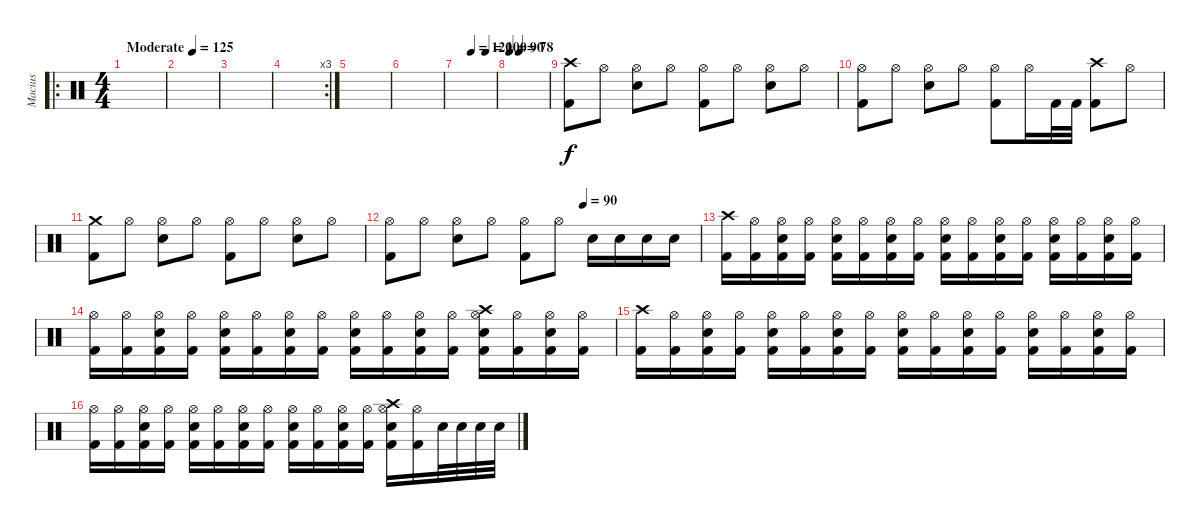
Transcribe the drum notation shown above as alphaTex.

\track ("Macius" "Macius") {instrument percussion}
\staff {score}
\articulation defaults
\ro
\ts (4 4)
\tempo (125 "Moderate")
\clef neutral
\ks c
|
|
|
\rc 3
|
|
|
\tempo (120 0.375)
\tempo (100 0.75)
|
\tempo 90
\tempo (78 0.25)
|
("Crash high (hit)" "Kick (hit) 2").8 "Hi-Hat (open)".8 ("Hi-Hat (open)" "Electric Snare (hit)").8 "Hi-Hat (open)".8 ("Hi-Hat (open)" "Kick (hit) 2").8 "Hi-Hat (open)".8 ("Hi-Hat (open)" "Electric Snare (hit)").8 "Hi-Hat (open)".8 |
("Hi-Hat (open)" "Kick (hit) 2").8 "Hi-Hat (open)".8 ("Hi-Hat (open)" "Electric Snare (hit)").8 "Hi-Hat (open)".8 ("Hi-Hat (open)" "Kick (hit) 2").8 "Hi-Hat (open)".16 "Kick (hit) 2".32 "Kick (hit) 2".32 ("Crash high (hit)" "Kick (hit) 2").8 "Hi-Hat (open)".8 |
("Crash medium (hit)" "Kick (hit) 2").8 "Hi-Hat (open)".8 ("Hi-Hat (open)" "Electric Snare (hit)").8 "Hi-Hat (open)".8 ("Hi-Hat (open)" "Kick (hit) 2").8 "Hi-Hat (open)".8 ("Hi-Hat (open)" "Electric Snare (hit)").8 "Hi-Hat (open)".8 |
\tempo (90 0.625)
("Hi-Hat (open)" "Kick (hit) 2").8 "Hi-Hat (open)".8 ("Hi-Hat (open)" "Electric Snare (hit)").8 "Hi-Hat (open)".8 ("Hi-Hat (open)" "Kick (hit) 2").8 "Hi-Hat (open)".8 "Electric Snare (hit)".16 "Electric Snare (hit)".16 "Electric Snare (hit)".16 "Electric Snare (hit)".16 |
("Crash high (hit)" "Kick (hit) 2").16 ("Hi-Hat (open)" "Kick (hit) 2").16 ("Hi-Hat (open)" "Electric Snare (hit)" "Kick (hit) 2").16 ("Hi-Hat (open)" "Kick (hit) 2").16 ("Hi-Hat (open)" "Electric Snare (hit)" "Kick (hit) 2").16 ("Hi-Hat (open)" "Kick (hit) 2").16 ("Hi-Hat (open)" "Electric Snare (hit)" "Kick (hit) 2").16 ("Hi-Hat (open)" "Kick (hit) 2").16 ("Hi-Hat (open)" "Electric Snare (hit)" "Kick (hit) 2").16 ("Hi-Hat (open)" "Kick (hit) 2").16 ("Hi-Hat (open)" "Electric Snare (hit)" "Kick (hit) 2").16 ("Hi-Hat (open)" "Kick (hit) 2").16 ("Hi-Hat (open)" "Electric Snare (hit)" "Kick (hit) 2").16 ("Hi-Hat (open)" "Kick (hit) 2").16 ("Hi-Hat (open)" "Electric Snare (hit)" "Kick (hit) 2").16 ("Hi-Hat (open)" "Kick (hit) 2").16 |
("Hi-Hat (open)" "Kick (hit) 2").16 ("Hi-Hat (open)" "Kick (hit) 2").16 ("Hi-Hat (open)" "Electric Snare (hit)" "Kick (hit) 2").16 ("Hi-Hat (open)" "Kick (hit) 2").16 ("Hi-Hat (open)" "Electric Snare (hit)" "Kick (hit) 2").16 ("Hi-Hat (open)" "Kick (hit) 2").16 ("Hi-Hat (open)" "Electric Snare (hit)" "Kick (hit) 2").16 ("Hi-Hat (open)" "Kick (hit) 2").16 ("Hi-Hat (open)" "Electric Snare (hit)" "Kick (hit) 2").16 ("Hi-Hat (open)" "Kick (hit) 2").16 ("Hi-Hat (open)" "Electric Snare (hit)" "Kick (hit) 2").16 ("Hi-Hat (open)" "Kick (hit) 2").16 ("Crash high (hit)" "Hi-Hat (open)" "Electric Snare (hit)" "Kick (hit) 2").16 ("Hi-Hat (open)" "Kick (hit) 2").16 ("Hi-Hat (open)" "Electric Snare (hit)" "Kick (hit) 2").16 ("Hi-Hat (open)" "Kick (hit) 2").16 |
("Crash high (hit)" "Kick (hit) 2").16 ("Hi-Hat (open)" "Kick (hit) 2").16 ("Hi-Hat (open)" "Electric Snare (hit)" "Kick (hit) 2").16 ("Hi-Hat (open)" "Kick (hit) 2").16 ("Hi-Hat (open)" "Electric Snare (hit)" "Kick (hit) 2").16 ("Hi-Hat (open)" "Kick (hit) 2").16 ("Hi-Hat (open)" "Electric Snare (hit)" "Kick (hit) 2").16 ("Hi-Hat (open)" "Kick (hit) 2").16 ("Hi-Hat (open)" "Electric Snare (hit)" "Kick (hit) 2").16 ("Hi-Hat (open)" "Kick (hit) 2").16 ("Hi-Hat (open)" "Electric Snare (hit)" "Kick (hit) 2").16 ("Hi-Hat (open)" "Kick (hit) 2").16 ("Hi-Hat (open)" "Electric Snare (hit)" "Kick (hit) 2").16 ("Hi-Hat (open)" "Kick (hit) 2").16 ("Hi-Hat (open)" "Electric Snare (hit)" "Kick (hit) 2").16 ("Hi-Hat (open)" "Kick (hit) 2").16 |
("Hi-Hat (open)" "Kick (hit) 2").16 ("Hi-Hat (open)" "Kick (hit) 2").16 ("Hi-Hat (open)" "Electric Snare (hit)" "Kick (hit) 2").16 ("Hi-Hat (open)" "Kick (hit) 2").16 ("Hi-Hat (open)" "Electric Snare (hit)" "Kick (hit) 2").16 ("Hi-Hat (open)" "Kick (hit) 2").16 ("Hi-Hat (open)" "Electric Snare (hit)" "Kick (hit) 2").16 ("Hi-Hat (open)" "Kick (hit) 2").16 ("Hi-Hat (open)" "Electric Snare (hit)" "Kick (hit) 2").16 ("Hi-Hat (open)" "Kick (hit) 2").16 ("Hi-Hat (open)" "Electric Snare (hit)" "Kick (hit) 2").16 ("Hi-Hat (open)" "Kick (hit) 2").16 ("Crash high (hit)" "Hi-Hat (open)" "Electric Snare (hit)" "Kick (hit) 2").16 ("Hi-Hat (open)" "Kick (hit) 2").16 "Electric Snare (hit)".32 "Electric Snare (hit)".32 "Electric Snare (hit)".32 "Electric Snare (hit)".32
